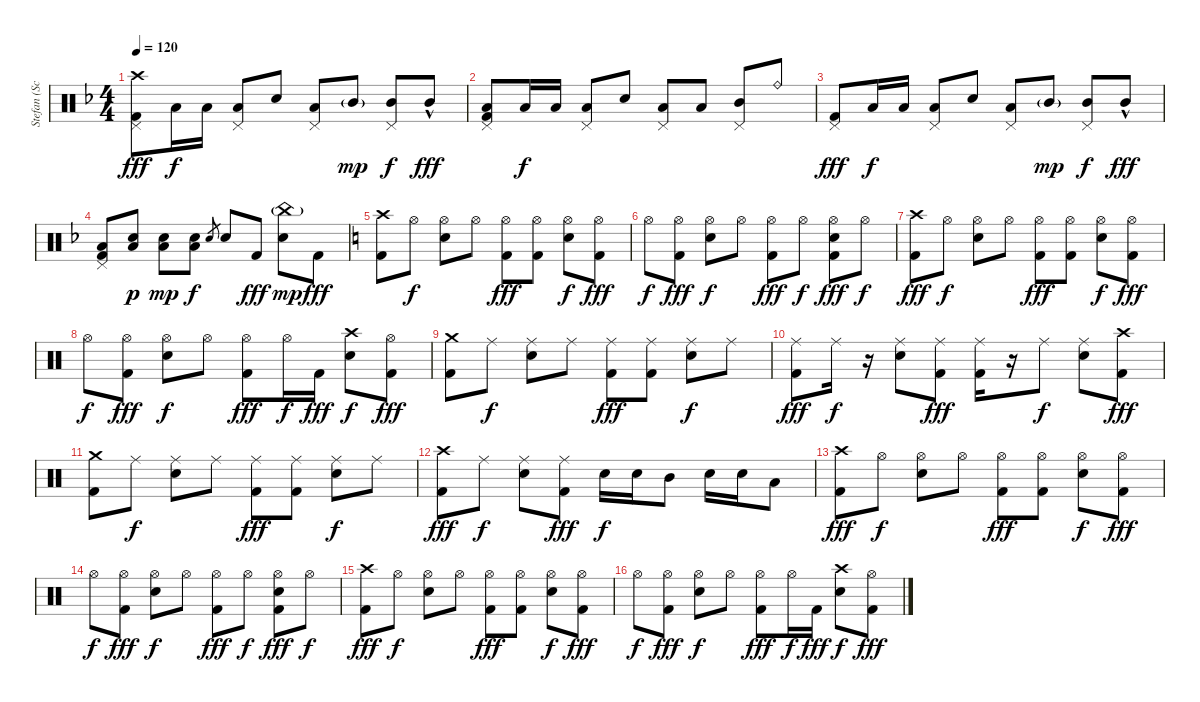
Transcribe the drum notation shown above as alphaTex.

\track ("Stefan (Schlagzeug)" "Stefan (Sc") {instrument percussion}
\staff {score}
\articulation defaults
\ts (4 4)
\tempo 120
\clef neutral
\ks f
("Crash high (hit)" "Kick (hit) 2" "Pedal Hi-Hat (hit)").8{dy fff} "Low Tom (hit)".16{dy f} "Low Tom (hit)".16 ("Low Tom (hit)" "Pedal Hi-Hat (hit)").8 "Snare (hit) 2".8 ("Low Tom (hit)" "Pedal Hi-Hat (hit)").8 "Mid Tom (hit)"{g}.8{dy mp} ("Mid Tom (hit)" "Pedal Hi-Hat (hit)").8{dy f} "Mid Tom (hit)"{hac}.8{dy fff} |
("Low Tom (hit)" "Kick (hit) 2" "Pedal Hi-Hat (hit)").8 "Low Tom (hit)".16{dy f} "Low Tom (hit)".16 ("Low Tom (hit)" "Pedal Hi-Hat (hit)").8 "Snare (hit) 2".8 ("Low Tom (hit)" "Pedal Hi-Hat (hit)").8 "Low Tom (hit)".8 ("Mid Tom (hit)" "Pedal Hi-Hat (hit)").8 "Ride (bell)".8 |
("Kick (hit) 2" "Pedal Hi-Hat (hit)").8{dy fff} "Low Tom (hit)".16{dy f} "Low Tom (hit)".16 ("Low Tom (hit)" "Pedal Hi-Hat (hit)").8 "Snare (hit) 2".8 ("Low Tom (hit)" "Pedal Hi-Hat (hit)").8 "Mid Tom (hit)"{g}.8{dy mp} ("Mid Tom (hit)" "Pedal Hi-Hat (hit)").8{dy f} "Mid Tom (hit)"{hac}.8{dy fff} |
("Low Tom (hit)" "Kick (hit) 2" "Pedal Hi-Hat (hit)").8 ("Snare (hit) 2" "Low Tom (hit)").8{dy p} ("Snare (hit) 2" "Low Tom (hit)").8{dy mp} ("Snare (hit) 2" "Low Tom (hit)").8{dy f} "Snare (hit) 2".8{gr} "Snare (hit) 2".8 "Kick (hit) 2".8{dy fff} ("China (hit)"{g} "Snare (hit) 2").8{dy mp} "Kick (hit) 2".8{dy fff} |
\ks c
("Crash high (hit)" "Kick (hit) 2").8 "Hi-Hat (open)".8{dy f} ("Hi-Hat (open)" "Snare (hit) 2").8 "Hi-Hat (open)".8 ("Hi-Hat (open)" "Kick (hit) 2").8{dy fff} ("Hi-Hat (open)" "Kick (hit) 2").8 ("Hi-Hat (open)" "Snare (hit) 2").8{dy f} ("Hi-Hat (open)" "Kick (hit) 2").8{dy fff} |
"Hi-Hat (open)".8{dy f} ("Hi-Hat (open)" "Kick (hit) 2").8{dy fff} ("Hi-Hat (open)" "Snare (hit) 2").8{dy f} "Hi-Hat (open)".8 ("Hi-Hat (open)" "Kick (hit) 2").8{dy fff} "Hi-Hat (open)".8{dy f} ("Hi-Hat (open)" "Snare (hit) 2" "Kick (hit) 2").8{dy fff} "Hi-Hat (open)".8{dy f} |
("Crash high (hit)" "Kick (hit) 2").8{dy fff} "Hi-Hat (open)".8{dy f} ("Hi-Hat (open)" "Snare (hit) 2").8 "Hi-Hat (open)".8 ("Hi-Hat (open)" "Kick (hit) 2").8{dy fff} ("Hi-Hat (open)" "Kick (hit) 2").8 ("Hi-Hat (open)" "Snare (hit) 2").8{dy f} ("Hi-Hat (open)" "Kick (hit) 2").8{dy fff} |
"Hi-Hat (open)".8{dy f} ("Hi-Hat (open)" "Kick (hit) 2").8{dy fff} ("Hi-Hat (open)" "Snare (hit) 2").8{dy f} "Hi-Hat (open)".8 ("Hi-Hat (open)" "Kick (hit) 2").8{dy fff} "Hi-Hat (open)".16{dy f} "Kick (hit) 2".16{dy fff} ("Crash high (hit)" "Snare (hit) 2").8{dy f} ("Hi-Hat (open)" "Kick (hit) 2").8{dy fff} |
("Crash medium (hit)" "Kick (hit) 2").8 "Ride (middle)".8{dy f} ("Ride (middle)" "Snare (hit) 2").8 "Ride (middle)".8 ("Ride (middle)" "Kick (hit) 2").8{dy fff} ("Ride (middle)" "Kick (hit) 2").8 ("Ride (middle)" "Snare (hit) 2").8{dy f} "Ride (middle)".8 |
("Ride (middle)" "Kick (hit) 2").8{dy fff} "Ride (middle)".16{dy f} r.16 ("Ride (middle)" "Snare (hit) 2").8 ("Ride (middle)" "Kick (hit) 2").8{dy fff} ("Ride (middle)" "Kick (hit) 2").16 r.16 "Ride (middle)".8{dy f} ("Ride (middle)" "Snare (hit) 2").8 ("Crash high (hit)" "Kick (hit) 2").8{dy fff} |
("Crash medium (hit)" "Kick (hit) 2").8 "Ride (middle)".8{dy f} ("Ride (middle)" "Snare (hit) 2").8 "Ride (middle)".8 ("Ride (middle)" "Kick (hit) 2").8{dy fff} ("Ride (middle)" "Kick (hit) 2").8 ("Ride (middle)" "Snare (hit) 2").8{dy f} "Ride (middle)".8 |
("Crash high (hit)" "Kick (hit) 2").8{dy fff} "Ride (middle)".8{dy f} ("Ride (middle)" "Snare (hit) 2").8 ("Ride (middle)" "Kick (hit) 2").8{dy fff} "Snare (hit) 2".16{dy f} "Snare (hit) 2".16 "Mid Tom (hit)".8 "Snare (hit) 2".16 "Snare (hit) 2".16 "Low Tom (hit)".8 |
("Crash high (hit)" "Kick (hit) 2").8{dy fff} "Hi-Hat (open)".8{dy f} ("Hi-Hat (open)" "Snare (hit) 2").8 "Hi-Hat (open)".8 ("Hi-Hat (open)" "Kick (hit) 2").8{dy fff} ("Hi-Hat (open)" "Kick (hit) 2").8 ("Hi-Hat (open)" "Snare (hit) 2").8{dy f} ("Hi-Hat (open)" "Kick (hit) 2").8{dy fff} |
"Hi-Hat (open)".8{dy f} ("Hi-Hat (open)" "Kick (hit) 2").8{dy fff} ("Hi-Hat (open)" "Snare (hit) 2").8{dy f} "Hi-Hat (open)".8 ("Hi-Hat (open)" "Kick (hit) 2").8{dy fff} "Hi-Hat (open)".8{dy f} ("Hi-Hat (open)" "Snare (hit) 2" "Kick (hit) 2").8{dy fff} "Hi-Hat (open)".8{dy f} |
("Crash high (hit)" "Kick (hit) 2").8{dy fff} "Hi-Hat (open)".8{dy f} ("Hi-Hat (open)" "Snare (hit) 2").8 "Hi-Hat (open)".8 ("Hi-Hat (open)" "Kick (hit) 2").8{dy fff} ("Hi-Hat (open)" "Kick (hit) 2").8 ("Hi-Hat (open)" "Snare (hit) 2").8{dy f} ("Hi-Hat (open)" "Kick (hit) 2").8{dy fff} |
"Hi-Hat (open)".8{dy f} ("Hi-Hat (open)" "Kick (hit) 2").8{dy fff} ("Hi-Hat (open)" "Snare (hit) 2").8{dy f} "Hi-Hat (open)".8 ("Hi-Hat (open)" "Kick (hit) 2").8{dy fff} "Hi-Hat (open)".16{dy f} "Kick (hit) 2".16{dy fff} ("Crash high (hit)" "Snare (hit) 2").8{dy f} ("Hi-Hat (open)" "Kick (hit) 2").8{dy fff}
